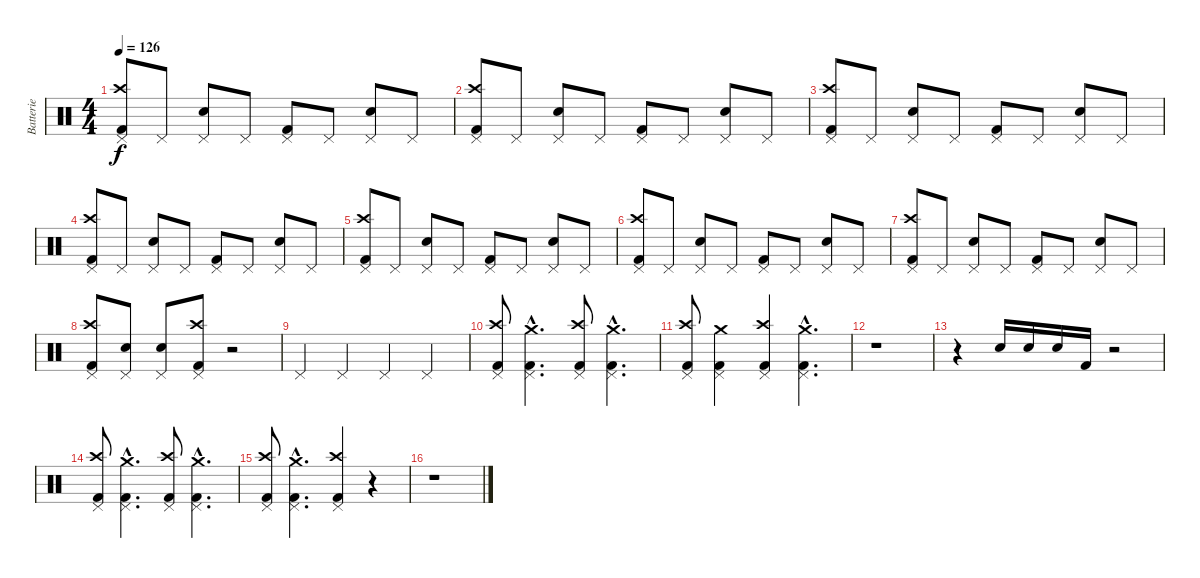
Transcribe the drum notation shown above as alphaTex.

\track ("Batterie" "Batterie") {instrument percussion}
\staff {score}
\articulation defaults
\ts (4 4)
\tempo 126
\clef neutral
\ks c
("Pedal Hi-Hat (hit)" "Crash high (hit)" "Kick (hit) 2").8{dy f} "Pedal Hi-Hat (hit)".8 ("Pedal Hi-Hat (hit)" "Snare (hit) 2").8 "Pedal Hi-Hat (hit)".8 ("Pedal Hi-Hat (hit)" "Kick (hit) 2").8 "Pedal Hi-Hat (hit)".8 ("Pedal Hi-Hat (hit)" "Snare (hit) 2").8 "Pedal Hi-Hat (hit)".8 |
("Pedal Hi-Hat (hit)" "Crash high (hit)" "Kick (hit) 2").8 "Pedal Hi-Hat (hit)".8 ("Pedal Hi-Hat (hit)" "Snare (hit) 2").8 "Pedal Hi-Hat (hit)".8 ("Pedal Hi-Hat (hit)" "Kick (hit) 2").8 "Pedal Hi-Hat (hit)".8 ("Pedal Hi-Hat (hit)" "Snare (hit) 2").8 "Pedal Hi-Hat (hit)".8 |
("Pedal Hi-Hat (hit)" "Crash high (hit)" "Kick (hit) 2").8 "Pedal Hi-Hat (hit)".8 ("Pedal Hi-Hat (hit)" "Snare (hit) 2").8 "Pedal Hi-Hat (hit)".8 ("Pedal Hi-Hat (hit)" "Kick (hit) 2").8 "Pedal Hi-Hat (hit)".8 ("Pedal Hi-Hat (hit)" "Snare (hit) 2").8 "Pedal Hi-Hat (hit)".8 |
("Pedal Hi-Hat (hit)" "Crash high (hit)" "Kick (hit) 2").8 "Pedal Hi-Hat (hit)".8 ("Pedal Hi-Hat (hit)" "Snare (hit) 2").8 "Pedal Hi-Hat (hit)".8 ("Pedal Hi-Hat (hit)" "Kick (hit) 2").8 "Pedal Hi-Hat (hit)".8 ("Pedal Hi-Hat (hit)" "Snare (hit) 2").8 "Pedal Hi-Hat (hit)".8 |
("Pedal Hi-Hat (hit)" "Crash high (hit)" "Kick (hit) 2").8 "Pedal Hi-Hat (hit)".8 ("Pedal Hi-Hat (hit)" "Snare (hit) 2").8 "Pedal Hi-Hat (hit)".8 ("Pedal Hi-Hat (hit)" "Kick (hit) 2").8 "Pedal Hi-Hat (hit)".8 ("Pedal Hi-Hat (hit)" "Snare (hit) 2").8 "Pedal Hi-Hat (hit)".8 |
("Pedal Hi-Hat (hit)" "Crash high (hit)" "Kick (hit) 2").8 "Pedal Hi-Hat (hit)".8 ("Pedal Hi-Hat (hit)" "Snare (hit) 2").8 "Pedal Hi-Hat (hit)".8 ("Pedal Hi-Hat (hit)" "Kick (hit) 2").8 "Pedal Hi-Hat (hit)".8 ("Pedal Hi-Hat (hit)" "Snare (hit) 2").8 "Pedal Hi-Hat (hit)".8 |
("Pedal Hi-Hat (hit)" "Crash high (hit)" "Kick (hit) 2").8 "Pedal Hi-Hat (hit)".8 ("Pedal Hi-Hat (hit)" "Snare (hit) 2").8 "Pedal Hi-Hat (hit)".8 ("Pedal Hi-Hat (hit)" "Kick (hit) 2").8 "Pedal Hi-Hat (hit)".8 ("Pedal Hi-Hat (hit)" "Snare (hit) 2").8 "Pedal Hi-Hat (hit)".8 |
("Pedal Hi-Hat (hit)" "Crash high (hit)" "Kick (hit) 2").8 ("Pedal Hi-Hat (hit)" "Snare (hit) 2").8 ("Pedal Hi-Hat (hit)" "Snare (hit) 2").8 ("Pedal Hi-Hat (hit)" "Crash high (hit)" "Kick (hit) 2").8 r.2 |
"Pedal Hi-Hat (hit)".4 "Pedal Hi-Hat (hit)".4 "Pedal Hi-Hat (hit)".4 "Pedal Hi-Hat (hit)".4 |
("Pedal Hi-Hat (hit)" "Crash high (hit)" "Kick (hit) 2").8 ("Pedal Hi-Hat (hit)"{hac} "Crash medium (hit)"{hac} "Kick (hit) 2"{hac}).4{d} ("Pedal Hi-Hat (hit)" "Crash high (hit)" "Kick (hit) 2").8 ("Pedal Hi-Hat (hit)"{hac} "Crash medium (hit)"{hac} "Kick (hit) 2"{hac}).4{d} |
("Pedal Hi-Hat (hit)" "Crash high (hit)" "Kick (hit) 2").8 ("Pedal Hi-Hat (hit)" "Crash medium (hit)" "Kick (hit) 2").4 ("Pedal Hi-Hat (hit)" "Crash high (hit)" "Kick (hit) 2").4 ("Pedal Hi-Hat (hit)"{hac} "Crash medium (hit)"{hac} "Kick (hit) 2"{hac}).4{d} |
r.1 |
r.4 "Snare (hit) 2".16 "Snare (hit) 2".16 "Snare (hit) 2".16 "Kick (hit) 2".16 r.2 |
("Pedal Hi-Hat (hit)" "Crash high (hit)" "Kick (hit) 2").8 ("Pedal Hi-Hat (hit)"{hac} "Crash medium (hit)"{hac} "Kick (hit) 2"{hac}).4{d} ("Pedal Hi-Hat (hit)" "Crash high (hit)" "Kick (hit) 2").8 ("Pedal Hi-Hat (hit)"{hac} "Crash medium (hit)"{hac} "Kick (hit) 2"{hac}).4{d} |
("Pedal Hi-Hat (hit)" "Crash high (hit)" "Kick (hit) 2").8 ("Pedal Hi-Hat (hit)"{hac} "Crash medium (hit)"{hac} "Kick (hit) 2"{hac}).4{d} ("Pedal Hi-Hat (hit)" "Crash high (hit)" "Kick (hit) 2").4 r.4 |
r.1
